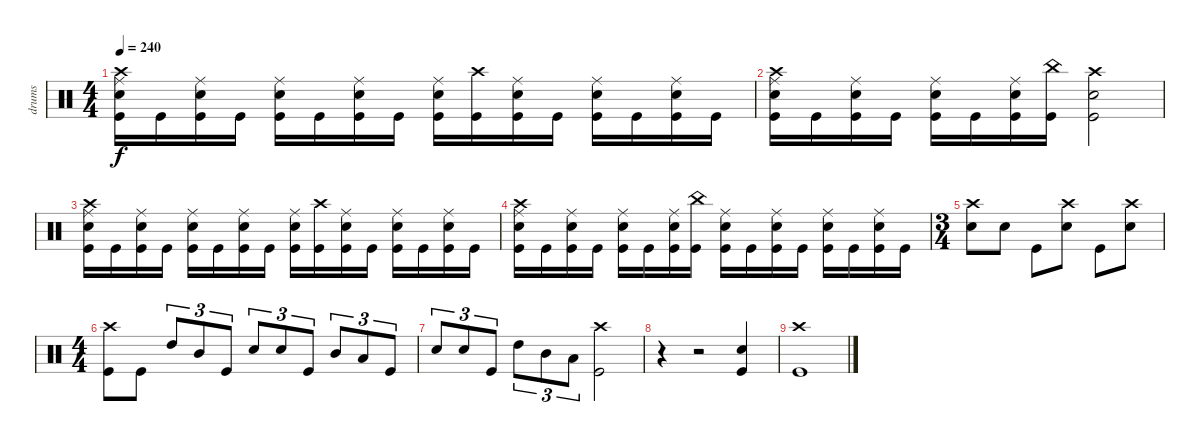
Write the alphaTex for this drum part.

\track ("drums" "drums") {instrument percussion}
\staff {score}
\articulation defaults
\ts (4 4)
\tempo 240
\clef neutral
\ks c
("Crash high (hit)" "Ride (middle)" "Electric Snare (hit)" "Kick (hit)").16{dy f} "Kick (hit)".16 ("Ride (middle)" "Electric Snare (hit)" "Kick (hit)").16 "Kick (hit)".16 ("Ride (middle)" "Electric Snare (hit)" "Kick (hit)").16 "Kick (hit)".16 ("Ride (middle)" "Electric Snare (hit)" "Kick (hit)").16 "Kick (hit)".16 ("Ride (middle)" "Electric Snare (hit)" "Kick (hit)").16 ("Crash high (hit)" "Kick (hit)").16 ("Ride (middle)" "Electric Snare (hit)" "Kick (hit)").16 "Kick (hit)".16 ("Ride (middle)" "Electric Snare (hit)" "Kick (hit)").16 "Kick (hit)".16 ("Ride (middle)" "Electric Snare (hit)" "Kick (hit)").16 "Kick (hit)".16 |
("Crash high (hit)" "Ride (middle)" "Electric Snare (hit)" "Kick (hit)").16 "Kick (hit)".16 ("Ride (middle)" "Electric Snare (hit)" "Kick (hit)").16 "Kick (hit)".16 ("Ride (middle)" "Electric Snare (hit)" "Kick (hit)").16 "Kick (hit)".16 ("Ride (middle)" "Electric Snare (hit)" "Kick (hit)").16 ("China (hit)" "Kick (hit)").16 ("Crash high (hit)" "Electric Snare (hit)" "Kick (hit)").2 |
("Crash high (hit)" "Ride (middle)" "Electric Snare (hit)" "Kick (hit)").16 "Kick (hit)".16 ("Ride (middle)" "Electric Snare (hit)" "Kick (hit)").16 "Kick (hit)".16 ("Ride (middle)" "Electric Snare (hit)" "Kick (hit)").16 "Kick (hit)".16 ("Ride (middle)" "Electric Snare (hit)" "Kick (hit)").16 "Kick (hit)".16 ("Ride (middle)" "Electric Snare (hit)" "Kick (hit)").16 ("Crash high (hit)" "Kick (hit)").16 ("Ride (middle)" "Electric Snare (hit)" "Kick (hit)").16 "Kick (hit)".16 ("Ride (middle)" "Electric Snare (hit)" "Kick (hit)").16 "Kick (hit)".16 ("Ride (middle)" "Electric Snare (hit)" "Kick (hit)").16 "Kick (hit)".16 |
("Crash high (hit)" "Ride (middle)" "Electric Snare (hit)" "Kick (hit)").16 "Kick (hit)".16 ("Ride (middle)" "Electric Snare (hit)" "Kick (hit)").16 "Kick (hit)".16 ("Ride (middle)" "Electric Snare (hit)" "Kick (hit)").16 "Kick (hit)".16 ("Ride (middle)" "Electric Snare (hit)" "Kick (hit)").16 ("China (hit)" "Kick (hit)").16 ("Ride (middle)" "Electric Snare (hit)" "Kick (hit)").16 "Kick (hit)".16 ("Ride (middle)" "Electric Snare (hit)" "Kick (hit)").16 "Kick (hit)".16 ("Ride (middle)" "Electric Snare (hit)" "Kick (hit)").16 "Kick (hit)".16 ("Ride (middle)" "Electric Snare (hit)" "Kick (hit)").16 "Kick (hit)".16 |
\ts (3 4)
("Crash high (hit)" "Electric Snare (hit)").8 "Electric Snare (hit)".8 "Kick (hit)".8 ("Crash high (hit)" "Electric Snare (hit)").8 "Kick (hit)".8 ("Crash high (hit)" "Electric Snare (hit)").8 |
\ts (4 4)
("Crash high (hit)" "Kick (hit)").8 "Kick (hit)".8 "High Tom (hit)".8{tu (3 2)} "Mid Tom (hit)".8{tu (3 2)} "Kick (hit)".8{tu (3 2)} "Electric Snare (hit)".8{tu (3 2)} "Electric Snare (hit)".8{tu (3 2)} "Kick (hit)".8{tu (3 2)} "Mid Tom (hit)".8{tu (3 2)} "Low Tom (hit)".8{tu (3 2)} "Kick (hit)".8{tu (3 2)} |
"Electric Snare (hit)".8{tu (3 2)} "Electric Snare (hit)".8{tu (3 2)} "Kick (hit)".8{tu (3 2)} "High Tom (hit)".8{tu (3 2)} "Mid Tom (hit)".8{tu (3 2)} "Low Tom (hit)".8{tu (3 2)} ("Crash high (hit)" "Kick (hit)").2 |
r.4 r.2 ("Electric Snare (hit)" "Kick (hit)").4 |
("Crash high (hit)" "Kick (hit)").1
